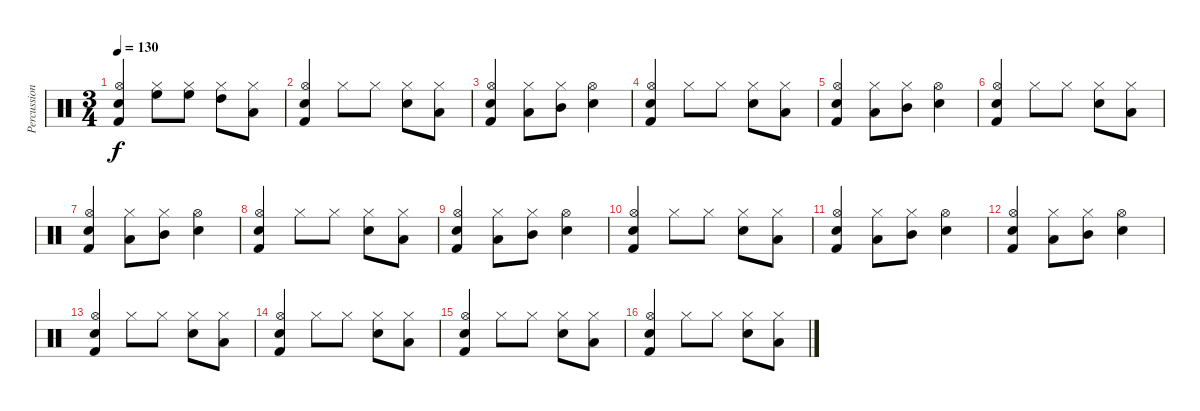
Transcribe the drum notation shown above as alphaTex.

\track ("Percussion" "Percussion") {instrument percussion}
\staff {score}
\articulation defaults
\ts (3 4)
\tempo 130
\clef neutral
\ks c
("Snare (hit) 2" "Hi-Hat (open)" "Kick (hit) 2").4{dy f} ("High Floor Tom (hit)" "Hi-Hat (closed)").8 ("High Floor Tom (hit)" "Hi-Hat (closed)").8 ("High Tom (hit)" "Hi-Hat (closed)").8 ("Low Tom (hit)" "Hi-Hat (closed)").8 |
("Snare (hit) 2" "Hi-Hat (open)" "Kick (hit) 2").4 "Hi-Hat (closed)".8 "Hi-Hat (closed)".8 ("Snare (hit) 2" "Hi-Hat (closed)").8 ("Low Tom (hit)" "Hi-Hat (closed)").8 |
("Snare (hit) 2" "Hi-Hat (open)" "Kick (hit) 2").4 ("Low Tom (hit)" "Hi-Hat (closed)").8 ("Mid Tom (hit)" "Hi-Hat (closed)").8 ("Snare (hit) 2" "Hi-Hat (open)").4 |
("Snare (hit) 2" "Hi-Hat (open)" "Kick (hit) 2").4 "Hi-Hat (closed)".8 "Hi-Hat (closed)".8 ("Snare (hit) 2" "Hi-Hat (closed)").8 ("Low Tom (hit)" "Hi-Hat (closed)").8 |
("Snare (hit) 2" "Hi-Hat (open)" "Kick (hit) 2").4 ("Low Tom (hit)" "Hi-Hat (closed)").8 ("Mid Tom (hit)" "Hi-Hat (closed)").8 ("Snare (hit) 2" "Hi-Hat (open)").4 |
("Snare (hit) 2" "Hi-Hat (open)" "Kick (hit) 2").4 "Hi-Hat (closed)".8 "Hi-Hat (closed)".8 ("Snare (hit) 2" "Hi-Hat (closed)").8 ("Low Tom (hit)" "Hi-Hat (closed)").8 |
("Snare (hit) 2" "Hi-Hat (open)" "Kick (hit) 2").4 ("Low Tom (hit)" "Hi-Hat (closed)").8 ("Mid Tom (hit)" "Hi-Hat (closed)").8 ("Snare (hit) 2" "Hi-Hat (open)").4 |
("Snare (hit) 2" "Hi-Hat (open)" "Kick (hit) 2").4 "Hi-Hat (closed)".8 "Hi-Hat (closed)".8 ("Snare (hit) 2" "Hi-Hat (closed)").8 ("Low Tom (hit)" "Hi-Hat (closed)").8 |
("Snare (hit) 2" "Hi-Hat (open)" "Kick (hit) 2").4 ("Low Tom (hit)" "Hi-Hat (closed)").8 ("Mid Tom (hit)" "Hi-Hat (closed)").8 ("Snare (hit) 2" "Hi-Hat (open)").4 |
("Snare (hit) 2" "Hi-Hat (open)" "Kick (hit) 2").4 "Hi-Hat (closed)".8 "Hi-Hat (closed)".8 ("Snare (hit) 2" "Hi-Hat (closed)").8 ("Low Tom (hit)" "Hi-Hat (closed)").8 |
("Snare (hit) 2" "Hi-Hat (open)" "Kick (hit) 2").4 ("Low Tom (hit)" "Hi-Hat (closed)").8 ("Mid Tom (hit)" "Hi-Hat (closed)").8 ("Snare (hit) 2" "Hi-Hat (open)").4 |
("Snare (hit) 2" "Hi-Hat (open)" "Kick (hit) 2").4 ("Low Tom (hit)" "Hi-Hat (closed)").8 ("Mid Tom (hit)" "Hi-Hat (closed)").8 ("Snare (hit) 2" "Hi-Hat (open)").4 |
("Snare (hit) 2" "Hi-Hat (open)" "Kick (hit) 2").4 "Hi-Hat (closed)".8 "Hi-Hat (closed)".8 ("Snare (hit) 2" "Hi-Hat (closed)").8 ("Low Tom (hit)" "Hi-Hat (closed)").8 |
("Snare (hit) 2" "Hi-Hat (open)" "Kick (hit) 2").4 "Hi-Hat (closed)".8 "Hi-Hat (closed)".8 ("Snare (hit) 2" "Hi-Hat (closed)").8 ("Low Tom (hit)" "Hi-Hat (closed)").8 |
("Snare (hit) 2" "Hi-Hat (open)" "Kick (hit) 2").4 "Hi-Hat (closed)".8 "Hi-Hat (closed)".8 ("Snare (hit) 2" "Hi-Hat (closed)").8 ("Low Tom (hit)" "Hi-Hat (closed)").8 |
("Snare (hit) 2" "Hi-Hat (open)" "Kick (hit) 2").4 "Hi-Hat (closed)".8 "Hi-Hat (closed)".8 ("Snare (hit) 2" "Hi-Hat (closed)").8 ("Low Tom (hit)" "Hi-Hat (closed)").8
